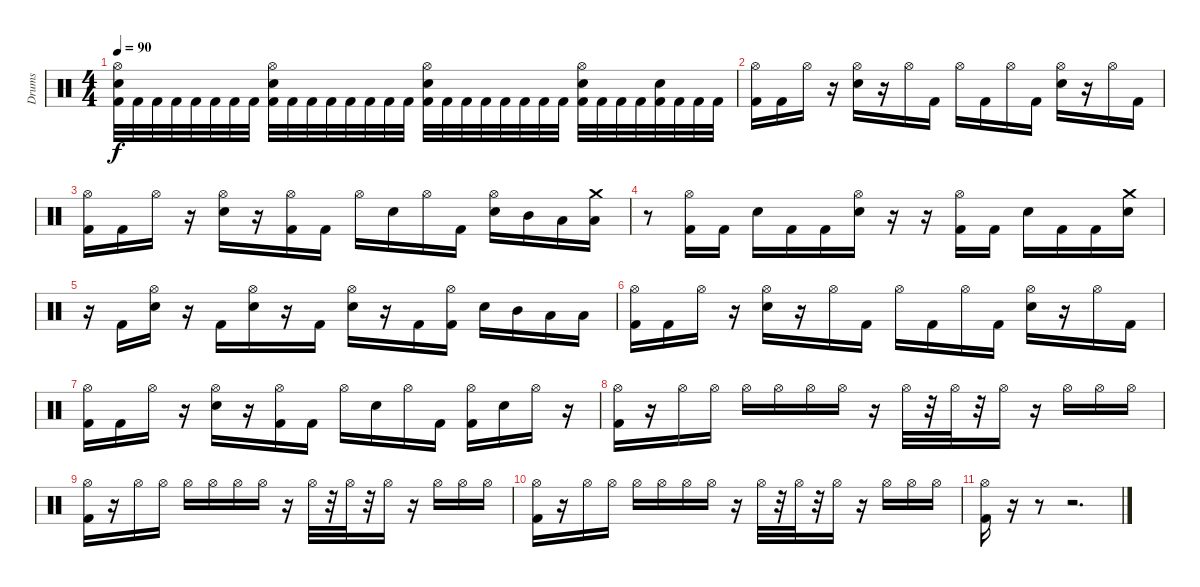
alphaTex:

\track ("Drums" "Drums") {instrument percussion}
\staff {score}
\articulation defaults
\ts (4 4)
\tempo 90
\clef neutral
\ks c
("Hi-Hat (open)" "Snare (hit) 2" "Kick (hit) 2").32{dy f} "Kick (hit) 2".32 "Kick (hit) 2".32 "Kick (hit) 2".32 "Kick (hit) 2".32 "Kick (hit) 2".32 "Kick (hit) 2".32 "Kick (hit) 2".32 ("Hi-Hat (open)" "Snare (hit) 2" "Kick (hit) 2").32 "Kick (hit) 2".32 "Kick (hit) 2".32 "Kick (hit) 2".32 "Kick (hit) 2".32 "Kick (hit) 2".32 "Kick (hit) 2".32 "Kick (hit) 2".32 ("Hi-Hat (open)" "Snare (hit) 2" "Kick (hit) 2").32 "Kick (hit) 2".32 "Kick (hit) 2".32 "Kick (hit) 2".32 "Kick (hit) 2".32 "Kick (hit) 2".32 "Kick (hit) 2".32 "Kick (hit) 2".32 ("Hi-Hat (open)" "Snare (hit) 2" "Kick (hit) 2").32 "Kick (hit) 2".32 "Kick (hit) 2".32 "Kick (hit) 2".32 ("Snare (hit) 2" "Kick (hit) 2").32 "Kick (hit) 2".32 "Kick (hit) 2".32 "Kick (hit) 2".32 |
("Hi-Hat (open)" "Kick (hit) 2").16 "Kick (hit) 2".16 "Hi-Hat (open)".16 r.16 ("Hi-Hat (open)" "Snare (hit) 2").16 r.16 "Hi-Hat (open)".16 "Kick (hit) 2".16 "Hi-Hat (open)".16 "Kick (hit) 2".16 "Hi-Hat (open)".16 "Kick (hit) 2".16 ("Hi-Hat (open)" "Snare (hit) 2").16 r.16 "Hi-Hat (open)".16 "Kick (hit) 2".16 |
("Hi-Hat (open)" "Kick (hit) 2").16 "Kick (hit) 2".16 "Hi-Hat (open)".16 r.16 ("Hi-Hat (open)" "Snare (hit) 2").16 r.16 ("Hi-Hat (open)" "Kick (hit) 2").16 "Kick (hit) 2".16 "Hi-Hat (open)".16 "Snare (hit) 2".16 "Hi-Hat (open)".16 "Kick (hit) 2".16 ("Hi-Hat (open)" "Snare (hit) 2").16 "Mid Tom (hit)".16 "Low Tom (hit)".16 ("Crash medium (hit)" "Low Floor Tom (hit)").16 |
r.8 ("Hi-Hat (open)" "Kick (hit) 2").16 "Kick (hit) 2".16 "Snare (hit) 2".16 "Kick (hit) 2".16 "Kick (hit) 2".16 ("Hi-Hat (open)" "Snare (hit) 2").16 r.16 r.16 ("Hi-Hat (open)" "Kick (hit) 2").16 "Kick (hit) 2".16 "Snare (hit) 2".16 "Kick (hit) 2".16 "Kick (hit) 2".16 ("Crash medium (hit)" "Snare (hit) 2").16 |
r.16 "Kick (hit) 2".16 ("Hi-Hat (open)" "Snare (hit) 2").16 r.16 "Kick (hit) 2".16 ("Hi-Hat (open)" "Snare (hit) 2").16 r.16 "Kick (hit) 2".16 ("Hi-Hat (open)" "Snare (hit) 2").16 r.16 "Kick (hit) 2".16 ("Hi-Hat (open)" "Kick (hit) 2").16 "Snare (hit) 2".16 "Mid Tom (hit)".16 "Low Tom (hit)".16 "Low Floor Tom (hit)".16 |
("Hi-Hat (open)" "Kick (hit) 2").16 "Kick (hit) 2".16 "Hi-Hat (open)".16 r.16 ("Hi-Hat (open)" "Snare (hit) 2").16 r.16 "Hi-Hat (open)".16 "Kick (hit) 2".16 "Hi-Hat (open)".16 "Kick (hit) 2".16 "Hi-Hat (open)".16 "Kick (hit) 2".16 ("Hi-Hat (open)" "Snare (hit) 2").16 r.16 "Hi-Hat (open)".16 "Kick (hit) 2".16 |
("Hi-Hat (open)" "Kick (hit) 2").16 "Kick (hit) 2".16 "Hi-Hat (open)".16 r.16 ("Hi-Hat (open)" "Snare (hit) 2").16 r.16 ("Hi-Hat (open)" "Kick (hit) 2").16 "Kick (hit) 2".16 "Hi-Hat (open)".16 "Snare (hit) 2".16 "Hi-Hat (open)".16 "Kick (hit) 2".16 ("Hi-Hat (open)" "Kick (hit) 2").16 "Snare (hit) 2".16 "Hi-Hat (open)".16 r.16 |
("Hi-Hat (open)" "Kick (hit) 2").16 r.16 "Hi-Hat (open)".16 "Hi-Hat (open)".16 "Hi-Hat (open)".16 "Hi-Hat (open)".16 "Hi-Hat (open)".16 "Hi-Hat (open)".16 r.16 "Hi-Hat (open)".32 r.32 "Hi-Hat (open)".32 r.32 "Hi-Hat (open)".16 r.16 "Hi-Hat (open)".16 "Hi-Hat (open)".16 "Hi-Hat (open)".16 |
("Hi-Hat (open)" "Kick (hit) 2").16 r.16 "Hi-Hat (open)".16 "Hi-Hat (open)".16 "Hi-Hat (open)".16 "Hi-Hat (open)".16 "Hi-Hat (open)".16 "Hi-Hat (open)".16 r.16 "Hi-Hat (open)".32 r.32 "Hi-Hat (open)".32 r.32 "Hi-Hat (open)".16 r.16 "Hi-Hat (open)".16 "Hi-Hat (open)".16 "Hi-Hat (open)".16 |
("Hi-Hat (open)" "Kick (hit) 2").16 r.16 "Hi-Hat (open)".16 "Hi-Hat (open)".16 "Hi-Hat (open)".16 "Hi-Hat (open)".16 "Hi-Hat (open)".16 "Hi-Hat (open)".16 r.16 "Hi-Hat (open)".32 r.32 "Hi-Hat (open)".32 r.32 "Hi-Hat (open)".16 r.16 "Hi-Hat (open)".16 "Hi-Hat (open)".16 "Hi-Hat (open)".16 |
("Hi-Hat (open)" "Kick (hit) 2").16 r.16 r.8 r.2{d}
